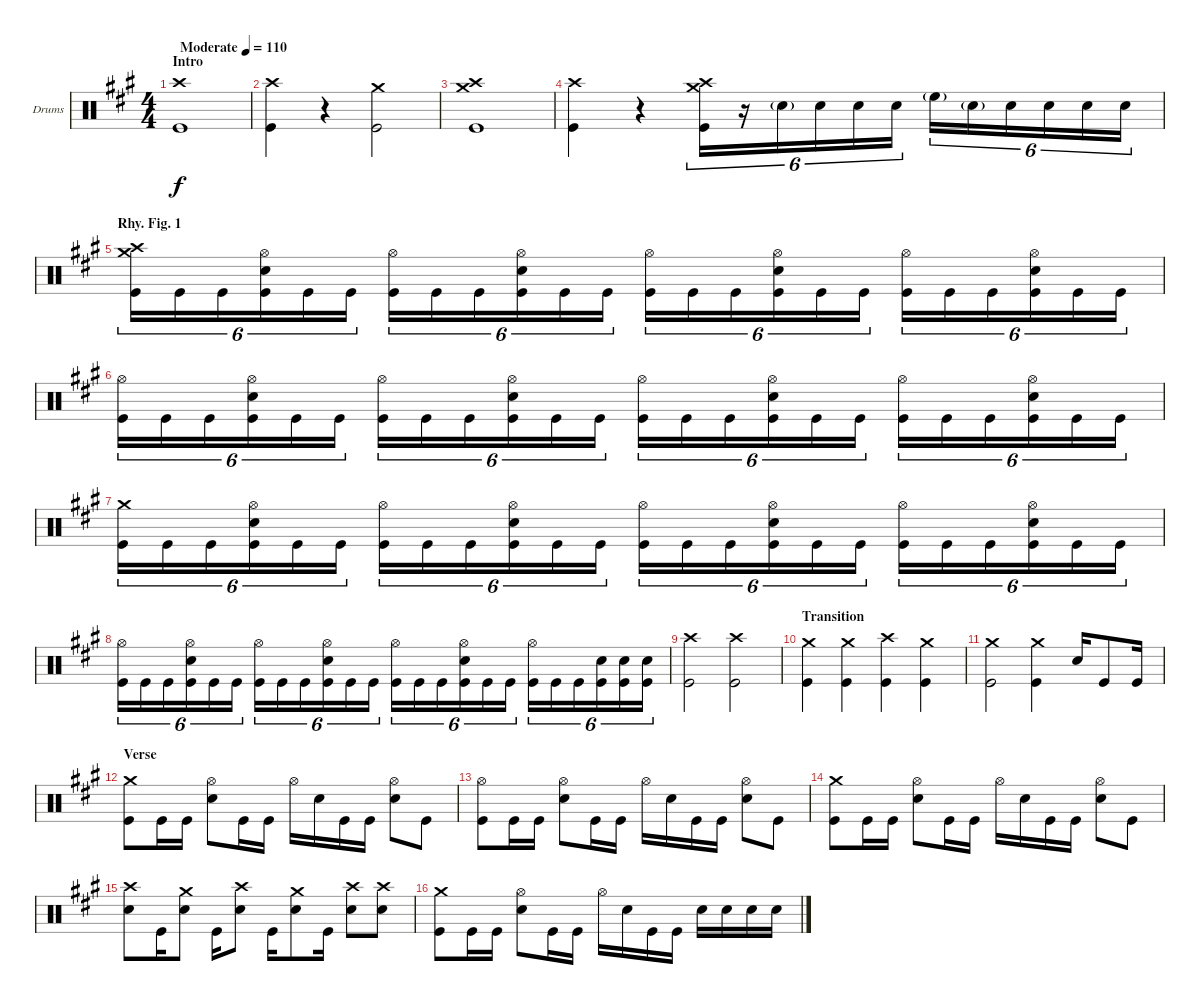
\bracketExtendMode groupsimilarinstruments
\firstSystemTrackNameOrientation horizontal
\otherSystemsTrackNameOrientation horizontal
\track ("Drumkit" "Drums") {instrument percussion}
\staff {score}
\articulation defaults
\ts (4 4)
\beaming (8 2 2 2 2)
\section ("" "Intro")
\tempo (110 "Moderate")
\clef neutral
\ks a
("Crash high (hit)" "Kick (hit)").1{dy f} |
("Crash high (hit)" "Kick (hit)").4 r.4 ("Crash medium (hit)" "Kick (hit)").2 |
("Crash medium (hit)" "Crash high (hit)" "Kick (hit)").1 |
("Crash high (hit)" "Kick (hit)").4 r.4 ("Crash medium (hit)" "Crash high (hit)" "Kick (hit)").16{tu (6 4)} r.16{tu (6 4)} "Snare (hit) 2"{g}.16{tu (6 4)} "Snare (hit) 2".16{tu (6 4)} "Snare (hit) 2".16{tu (6 4)} "Snare (hit) 2".16{tu (6 4)} "High Floor Tom (hit)"{g}.16{tu (6 4)} "Snare (hit) 2"{g}.16{tu (6 4)} "Snare (hit) 2".16{tu (6 4)} "Snare (hit) 2".16{tu (6 4)} "Snare (hit) 2".16{tu (6 4)} "Snare (hit) 2".16{tu (6 4)} |
\section ("" "Rhy. Fig. 1")
("Crash high (hit)" "Kick (hit)" "Crash medium (hit)").16{tu (6 4)} "Kick (hit)".16{tu (6 4)} "Kick (hit)".16{tu (6 4)} ("Snare (hit) 2" "Kick (hit)" "Hi-Hat (open)").16{tu (6 4)} "Kick (hit)".16{tu (6 4)} "Kick (hit)".16{tu (6 4)} ("Kick (hit)" "Hi-Hat (open)").16{tu (6 4)} "Kick (hit)".16{tu (6 4)} "Kick (hit)".16{tu (6 4)} ("Snare (hit) 2" "Kick (hit)" "Hi-Hat (open)").16{tu (6 4)} "Kick (hit)".16{tu (6 4)} "Kick (hit)".16{tu (6 4)} ("Kick (hit)" "Hi-Hat (open)").16{tu (6 4)} "Kick (hit)".16{tu (6 4)} "Kick (hit)".16{tu (6 4)} ("Snare (hit) 2" "Kick (hit)" "Hi-Hat (open)").16{tu (6 4)} "Kick (hit)".16{tu (6 4)} "Kick (hit)".16{tu (6 4)} ("Kick (hit)" "Hi-Hat (open)").16{tu (6 4)} "Kick (hit)".16{tu (6 4)} "Kick (hit)".16{tu (6 4)} ("Snare (hit) 2" "Kick (hit)" "Hi-Hat (open)").16{tu (6 4)} "Kick (hit)".16{tu (6 4)} "Kick (hit)".16{tu (6 4)} |
("Kick (hit)" "Hi-Hat (open)").16{tu (6 4)} "Kick (hit)".16{tu (6 4)} "Kick (hit)".16{tu (6 4)} ("Snare (hit) 2" "Kick (hit)" "Hi-Hat (open)").16{tu (6 4)} "Kick (hit)".16{tu (6 4)} "Kick (hit)".16{tu (6 4)} ("Kick (hit)" "Hi-Hat (open)").16{tu (6 4)} "Kick (hit)".16{tu (6 4)} "Kick (hit)".16{tu (6 4)} ("Snare (hit) 2" "Kick (hit)" "Hi-Hat (open)").16{tu (6 4)} "Kick (hit)".16{tu (6 4)} "Kick (hit)".16{tu (6 4)} ("Kick (hit)" "Hi-Hat (open)").16{tu (6 4)} "Kick (hit)".16{tu (6 4)} "Kick (hit)".16{tu (6 4)} ("Snare (hit) 2" "Kick (hit)" "Hi-Hat (open)").16{tu (6 4)} "Kick (hit)".16{tu (6 4)} "Kick (hit)".16{tu (6 4)} ("Kick (hit)" "Hi-Hat (open)").16{tu (6 4)} "Kick (hit)".16{tu (6 4)} "Kick (hit)".16{tu (6 4)} ("Snare (hit) 2" "Kick (hit)" "Hi-Hat (open)").16{tu (6 4)} "Kick (hit)".16{tu (6 4)} "Kick (hit)".16{tu (6 4)} |
("Kick (hit)" "Crash medium (hit)").16{tu (6 4)} "Kick (hit)".16{tu (6 4)} "Kick (hit)".16{tu (6 4)} ("Snare (hit) 2" "Kick (hit)" "Hi-Hat (open)").16{tu (6 4)} "Kick (hit)".16{tu (6 4)} "Kick (hit)".16{tu (6 4)} ("Kick (hit)" "Hi-Hat (open)").16{tu (6 4)} "Kick (hit)".16{tu (6 4)} "Kick (hit)".16{tu (6 4)} ("Snare (hit) 2" "Kick (hit)" "Hi-Hat (open)").16{tu (6 4)} "Kick (hit)".16{tu (6 4)} "Kick (hit)".16{tu (6 4)} ("Kick (hit)" "Hi-Hat (open)").16{tu (6 4)} "Kick (hit)".16{tu (6 4)} "Kick (hit)".16{tu (6 4)} ("Snare (hit) 2" "Kick (hit)" "Hi-Hat (open)").16{tu (6 4)} "Kick (hit)".16{tu (6 4)} "Kick (hit)".16{tu (6 4)} ("Kick (hit)" "Hi-Hat (open)").16{tu (6 4)} "Kick (hit)".16{tu (6 4)} "Kick (hit)".16{tu (6 4)} ("Snare (hit) 2" "Kick (hit)" "Hi-Hat (open)").16{tu (6 4)} "Kick (hit)".16{tu (6 4)} "Kick (hit)".16{tu (6 4)} |
("Kick (hit)" "Hi-Hat (open)").16{tu (6 4)} "Kick (hit)".16{tu (6 4)} "Kick (hit)".16{tu (6 4)} ("Snare (hit) 2" "Kick (hit)" "Hi-Hat (open)").16{tu (6 4)} "Kick (hit)".16{tu (6 4)} "Kick (hit)".16{tu (6 4)} ("Kick (hit)" "Hi-Hat (open)").16{tu (6 4)} "Kick (hit)".16{tu (6 4)} "Kick (hit)".16{tu (6 4)} ("Snare (hit) 2" "Kick (hit)" "Hi-Hat (open)").16{tu (6 4)} "Kick (hit)".16{tu (6 4)} "Kick (hit)".16{tu (6 4)} ("Kick (hit)" "Hi-Hat (open)").16{tu (6 4)} "Kick (hit)".16{tu (6 4)} "Kick (hit)".16{tu (6 4)} ("Snare (hit) 2" "Kick (hit)" "Hi-Hat (open)").16{tu (6 4)} "Kick (hit)".16{tu (6 4)} "Kick (hit)".16{tu (6 4)} ("Kick (hit)" "Hi-Hat (open)").16{tu (6 4)} "Kick (hit)".16{tu (6 4)} "Kick (hit)".16{tu (6 4)} ("Snare (hit) 2" "Kick (hit)").16{tu (6 4)} ("Kick (hit)" "Snare (hit) 2").16{tu (6 4)} ("Kick (hit)" "Snare (hit) 2").16{tu (6 4)} |
("Kick (hit)" "Crash high (hit)").2 ("Kick (hit)" "Crash high (hit)").2 |
\section ("" "Transition")
("Kick (hit)" "Crash medium (hit)").4 ("Kick (hit)" "Crash medium (hit)").4 ("Kick (hit)" "Crash high (hit)").4 ("Kick (hit)" "Crash medium (hit)").4 |
("Kick (hit)" "Crash medium (hit)").2 ("Kick (hit)" "Crash medium (hit)").4 "Snare (hit) 2".16 "Kick (hit)".8 "Kick (hit)".16 |
\section ("" "Verse")
("Kick (hit)" "Crash medium (hit)").8 "Kick (hit)".16 "Kick (hit)".16 ("Snare (hit) 2" "Hi-Hat (open)").8 "Kick (hit)".16 "Kick (hit)".16 "Hi-Hat (open)".16 "Snare (hit) 2".16 "Kick (hit)".16 "Kick (hit)".16 ("Snare (hit) 2" "Hi-Hat (open)").8 "Kick (hit)".8 |
("Kick (hit)" "Hi-Hat (open)").8 "Kick (hit)".16 "Kick (hit)".16 ("Snare (hit) 2" "Hi-Hat (open)").8 "Kick (hit)".16 "Kick (hit)".16 "Hi-Hat (open)".16 "Snare (hit) 2".16 "Kick (hit)".16 "Kick (hit)".16 ("Snare (hit) 2" "Hi-Hat (open)").8 "Kick (hit)".8 |
("Kick (hit)" "Crash medium (hit)").8 "Kick (hit)".16 "Kick (hit)".16 ("Snare (hit) 2" "Hi-Hat (open)").8 "Kick (hit)".16 "Kick (hit)".16 "Hi-Hat (open)".16 "Snare (hit) 2".16 "Kick (hit)".16 "Kick (hit)".16 ("Snare (hit) 2" "Hi-Hat (open)").8 "Kick (hit)".8 |
("Crash high (hit)" "Snare (hit) 2").8 "Kick (hit)".16 ("Snare (hit) 2" "Crash medium (hit)").8 "Kick (hit)".16 ("Snare (hit) 2" "Crash high (hit)").8 "Kick (hit)".16 ("Snare (hit) 2" "Crash medium (hit)").8 "Kick (hit)".16 ("Snare (hit) 2" "Crash high (hit)").8 ("Snare (hit) 2" "Crash high (hit)").8 |
("Kick (hit)" "Crash medium (hit)").8 "Kick (hit)".16 "Kick (hit)".16 ("Snare (hit) 2" "Hi-Hat (open)").8 "Kick (hit)".16 "Kick (hit)".16 "Hi-Hat (open)".16 "Snare (hit) 2".16 "Kick (hit)".16 "Kick (hit)".16 "Snare (hit) 2".16 "Snare (hit) 2".16 "Snare (hit) 2".16 "Snare (hit) 2".16
